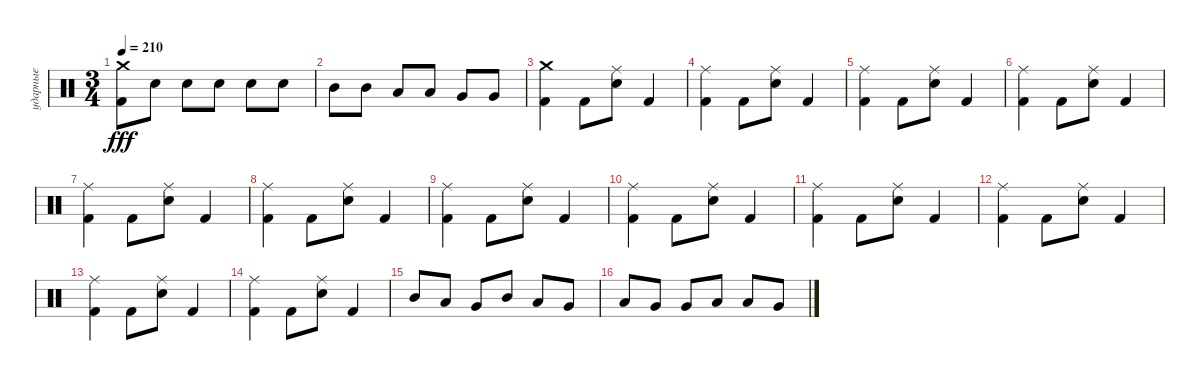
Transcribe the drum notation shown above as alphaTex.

\track ("ударные" "ударные") {instrument percussion}
\staff {score}
\articulation defaults
\ts (3 4)
\tempo 210
\clef neutral
\ks c
("Crash medium (hit)" "Kick (hit) 2").8{dy fff} "Snare (hit) 2".8 "Snare (hit) 2".8 "Snare (hit) 2".8 "Snare (hit) 2".8 "Snare (hit) 2".8 |
"Mid Tom (hit)".8 "Mid Tom (hit)".8 "Low Tom (hit)".8 "Low Tom (hit)".8 "Very Low Tom (hit)".8 "Very Low Tom (hit)".8 |
("Crash medium (hit)" "Kick (hit) 2").4 "Kick (hit) 2".8 ("Ride (middle)" "Snare (hit) 2").8 "Kick (hit) 2".4 |
("Ride (middle)" "Kick (hit) 2").4 "Kick (hit) 2".8 ("Ride (middle)" "Snare (hit) 2").8 "Kick (hit) 2".4 |
("Ride (middle)" "Kick (hit) 2").4 "Kick (hit) 2".8 ("Ride (middle)" "Snare (hit) 2").8 "Kick (hit) 2".4 |
("Ride (middle)" "Kick (hit) 2").4 "Kick (hit) 2".8 ("Ride (middle)" "Snare (hit) 2").8 "Kick (hit) 2".4 |
("Ride (middle)" "Kick (hit) 2").4 "Kick (hit) 2".8 ("Ride (middle)" "Snare (hit) 2").8 "Kick (hit) 2".4 |
("Ride (middle)" "Kick (hit) 2").4 "Kick (hit) 2".8 ("Ride (middle)" "Snare (hit) 2").8 "Kick (hit) 2".4 |
("Ride (middle)" "Kick (hit) 2").4 "Kick (hit) 2".8 ("Ride (middle)" "Snare (hit) 2").8 "Kick (hit) 2".4 |
("Ride (middle)" "Kick (hit) 2").4 "Kick (hit) 2".8 ("Ride (middle)" "Snare (hit) 2").8 "Kick (hit) 2".4 |
("Ride (middle)" "Kick (hit) 2").4 "Kick (hit) 2".8 ("Ride (middle)" "Snare (hit) 2").8 "Kick (hit) 2".4 |
("Ride (middle)" "Kick (hit) 2").4 "Kick (hit) 2".8 ("Ride (middle)" "Snare (hit) 2").8 "Kick (hit) 2".4 |
("Ride (middle)" "Kick (hit) 2").4 "Kick (hit) 2".8 ("Ride (middle)" "Snare (hit) 2").8 "Kick (hit) 2".4 |
("Ride (middle)" "Kick (hit) 2").4 "Kick (hit) 2".8 ("Ride (middle)" "Snare (hit) 2").8 "Kick (hit) 2".4 |
"Mid Tom (hit)".8 "Low Tom (hit)".8 "Very Low Tom (hit)".8 "Mid Tom (hit)".8 "Low Tom (hit)".8 "Very Low Tom (hit)".8 |
"Low Tom (hit)".8 "Very Low Tom (hit)".8 "Very Low Tom (hit)".8 "Low Tom (hit)".8 "Low Tom (hit)".8 "Very Low Tom (hit)".8
